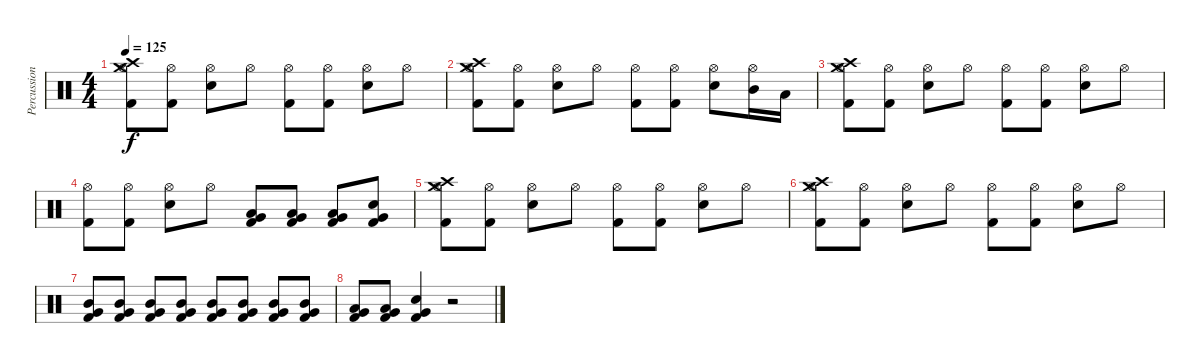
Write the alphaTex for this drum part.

\track ("Percussions" "Percussion") {instrument percussion}
\staff {score}
\articulation defaults
\ts (4 4)
\tempo 125
\clef neutral
\ks c
("Hi-Hat (open)" "Crash high (hit)" "Crash medium (hit)" "Kick (hit) 2").8{dy f} ("Hi-Hat (open)" "Kick (hit) 2").8 ("Hi-Hat (open)" "Electric Snare (hit)").8 "Hi-Hat (open)".8 ("Hi-Hat (open)" "Kick (hit) 2").8 ("Hi-Hat (open)" "Kick (hit) 2").8 ("Hi-Hat (open)" "Electric Snare (hit)").8 "Hi-Hat (open)".8 |
("Hi-Hat (open)" "Crash high (hit)" "Crash medium (hit)" "Kick (hit) 2").8 ("Hi-Hat (open)" "Kick (hit) 2").8 ("Hi-Hat (open)" "Electric Snare (hit)").8 "Hi-Hat (open)".8 ("Hi-Hat (open)" "Kick (hit) 2").8 ("Hi-Hat (open)" "Kick (hit) 2").8 ("Hi-Hat (open)" "Electric Snare (hit)").8 ("Hi-Hat (open)" "Mid Tom (hit)").16 "Low Tom (hit)".16 |
("Hi-Hat (open)" "Crash high (hit)" "Crash medium (hit)" "Kick (hit) 2").8 ("Hi-Hat (open)" "Kick (hit) 2").8 ("Hi-Hat (open)" "Electric Snare (hit)").8 "Hi-Hat (open)".8 ("Hi-Hat (open)" "Kick (hit) 2").8 ("Hi-Hat (open)" "Kick (hit) 2").8 ("Hi-Hat (open)" "Electric Snare (hit)").8 "Hi-Hat (open)".8 |
("Hi-Hat (open)" "Kick (hit) 2").8 ("Hi-Hat (open)" "Kick (hit) 2").8 ("Hi-Hat (open)" "Electric Snare (hit)").8 "Hi-Hat (open)".8 ("Very Low Tom (hit)" "Low Tom (hit)" "Kick (hit) 2").8 ("Very Low Tom (hit)" "Low Tom (hit)" "Kick (hit) 2").8 ("Very Low Tom (hit)" "Low Tom (hit)" "Kick (hit) 2").8 ("Very Low Tom (hit)" "Electric Snare (hit)" "Kick (hit) 2").8 |
("Hi-Hat (open)" "Crash high (hit)" "Crash medium (hit)" "Kick (hit) 2").8 ("Hi-Hat (open)" "Kick (hit) 2").8 ("Hi-Hat (open)" "Electric Snare (hit)").8 "Hi-Hat (open)".8 ("Hi-Hat (open)" "Kick (hit) 2").8 ("Hi-Hat (open)" "Kick (hit) 2").8 ("Hi-Hat (open)" "Electric Snare (hit)").8 "Hi-Hat (open)".8 |
("Hi-Hat (open)" "Crash high (hit)" "Crash medium (hit)" "Kick (hit) 2").8 ("Hi-Hat (open)" "Kick (hit) 2").8 ("Hi-Hat (open)" "Electric Snare (hit)").8 "Hi-Hat (open)".8 ("Hi-Hat (open)" "Kick (hit) 2").8 ("Hi-Hat (open)" "Kick (hit) 2").8 ("Hi-Hat (open)" "Electric Snare (hit)").8 "Hi-Hat (open)".8 |
("Very Low Tom (hit)" "Mid Tom (hit)" "Kick (hit) 2").8 ("Very Low Tom (hit)" "Mid Tom (hit)" "Kick (hit) 2").8 ("Very Low Tom (hit)" "Mid Tom (hit)" "Kick (hit) 2").8 ("Very Low Tom (hit)" "Mid Tom (hit)" "Kick (hit) 2").8 ("Very Low Tom (hit)" "Mid Tom (hit)" "Kick (hit) 2").8 ("Very Low Tom (hit)" "Mid Tom (hit)" "Kick (hit) 2").8 ("Very Low Tom (hit)" "Mid Tom (hit)" "Kick (hit) 2").8 ("Very Low Tom (hit)" "Mid Tom (hit)" "Kick (hit) 2").8 |
("Very Low Tom (hit)" "Low Tom (hit)" "Kick (hit) 2").8 ("Very Low Tom (hit)" "Low Tom (hit)" "Kick (hit) 2").8 ("Very Low Tom (hit)" "Electric Snare (hit)" "Kick (hit) 2").4 r.2
